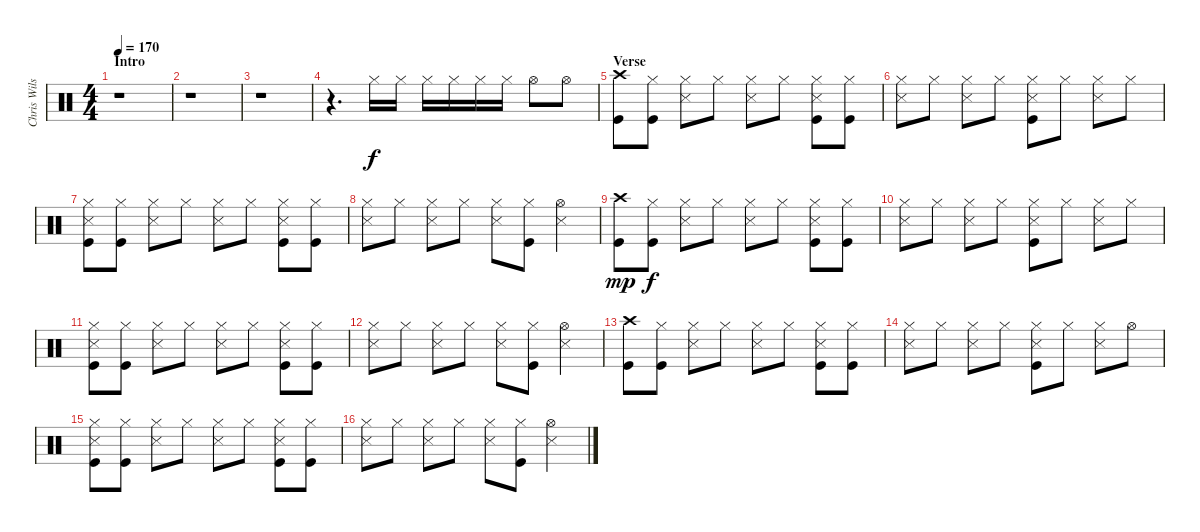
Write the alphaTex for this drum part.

\track ("Chris Wilson" "Chris Wils") {instrument percussion}
\staff {score}
\articulation defaults
\ts (4 4)
\section ("" "Intro")
\tempo 170
\clef neutral
\ks c
r.1{dy f} |
r.1 |
r.1 |
r.4{d} "Hi-Hat (closed)".16 "Hi-Hat (closed)".16 "Hi-Hat (closed)".16 "Hi-Hat (closed)".16 "Hi-Hat (closed)".16 "Hi-Hat (closed)".16 "Hi-Hat (open)".8 "Hi-Hat (open)".8 |
\section ("" "Verse")
("Crash high (hit)" "Kick (hit)").8 ("Hi-Hat (closed)" "Kick (hit)").8 ("Hi-Hat (closed)" "Snare (side stick) 3").8 "Hi-Hat (closed)".8 ("Hi-Hat (closed)" "Snare (side stick) 3").8 "Hi-Hat (closed)".8 ("Hi-Hat (closed)" "Snare (side stick) 3" "Kick (hit)").8 ("Hi-Hat (closed)" "Kick (hit)").8 |
("Hi-Hat (closed)" "Snare (side stick) 3").8 "Hi-Hat (closed)".8 ("Hi-Hat (closed)" "Snare (side stick) 3").8 "Hi-Hat (closed)".8 ("Hi-Hat (closed)" "Snare (side stick) 3" "Kick (hit)").8 "Hi-Hat (closed)".8 ("Hi-Hat (closed)" "Snare (side stick) 3").8 "Hi-Hat (closed)".8 |
("Hi-Hat (closed)" "Snare (side stick) 3" "Kick (hit)").8 ("Hi-Hat (closed)" "Kick (hit)").8 ("Hi-Hat (closed)" "Snare (side stick) 3").8 "Hi-Hat (closed)".8 ("Hi-Hat (closed)" "Snare (side stick) 3").8 "Hi-Hat (closed)".8 ("Hi-Hat (closed)" "Snare (side stick) 3" "Kick (hit)").8 ("Hi-Hat (closed)" "Kick (hit)").8 |
("Hi-Hat (closed)" "Snare (side stick) 3").8 "Hi-Hat (closed)".8 ("Hi-Hat (closed)" "Snare (side stick) 3").8 "Hi-Hat (closed)".8 ("Hi-Hat (closed)" "Snare (side stick) 3").8 ("Hi-Hat (closed)" "Kick (hit)").8 ("Hi-Hat (open)" "Snare (side stick) 3").4 |
("Crash high (hit)" "Kick (hit)").8{dy mp} ("Hi-Hat (closed)" "Kick (hit)").8{dy f} ("Hi-Hat (closed)" "Snare (side stick) 3").8 "Hi-Hat (closed)".8 ("Hi-Hat (closed)" "Snare (side stick) 3").8 "Hi-Hat (closed)".8 ("Hi-Hat (closed)" "Snare (side stick) 3" "Kick (hit)").8 ("Hi-Hat (closed)" "Kick (hit)").8 |
("Hi-Hat (closed)" "Snare (side stick) 3").8 "Hi-Hat (closed)".8 ("Hi-Hat (closed)" "Snare (side stick) 3").8 "Hi-Hat (closed)".8 ("Hi-Hat (closed)" "Snare (side stick) 3" "Kick (hit)").8 "Hi-Hat (closed)".8 ("Hi-Hat (closed)" "Snare (side stick) 3").8 "Hi-Hat (closed)".8 |
("Hi-Hat (closed)" "Snare (side stick) 3" "Kick (hit)").8 ("Hi-Hat (closed)" "Kick (hit)").8 ("Hi-Hat (closed)" "Snare (side stick) 3").8 "Hi-Hat (closed)".8 ("Hi-Hat (closed)" "Snare (side stick) 3").8 "Hi-Hat (closed)".8 ("Hi-Hat (closed)" "Snare (side stick) 3" "Kick (hit)").8 ("Hi-Hat (closed)" "Kick (hit)").8 |
("Hi-Hat (closed)" "Snare (side stick) 3").8 "Hi-Hat (closed)".8 ("Hi-Hat (closed)" "Snare (side stick) 3").8 "Hi-Hat (closed)".8 ("Hi-Hat (closed)" "Snare (side stick) 3").8 ("Hi-Hat (closed)" "Kick (hit)").8 ("Hi-Hat (open)" "Snare (side stick) 3").4 |
("Crash high (hit)" "Kick (hit)").8 ("Hi-Hat (closed)" "Kick (hit)").8 ("Hi-Hat (closed)" "Snare (side stick) 3").8 "Hi-Hat (closed)".8 ("Hi-Hat (closed)" "Snare (side stick) 3").8 "Hi-Hat (closed)".8 ("Hi-Hat (closed)" "Snare (side stick) 3" "Kick (hit)").8 ("Hi-Hat (closed)" "Kick (hit)").8 |
("Hi-Hat (closed)" "Snare (side stick) 3").8 "Hi-Hat (closed)".8 ("Hi-Hat (closed)" "Snare (side stick) 3").8 "Hi-Hat (closed)".8 ("Hi-Hat (closed)" "Snare (side stick) 3" "Kick (hit)").8 "Hi-Hat (closed)".8 ("Hi-Hat (closed)" "Snare (side stick) 3").8 "Hi-Hat (open)".8 |
("Hi-Hat (closed)" "Snare (side stick) 3" "Kick (hit)").8 ("Hi-Hat (closed)" "Kick (hit)").8 ("Hi-Hat (closed)" "Snare (side stick) 3").8 "Hi-Hat (closed)".8 ("Hi-Hat (closed)" "Snare (side stick) 3").8 "Hi-Hat (closed)".8 ("Hi-Hat (closed)" "Snare (side stick) 3" "Kick (hit)").8 ("Hi-Hat (closed)" "Kick (hit)").8 |
("Hi-Hat (closed)" "Snare (side stick) 3").8 "Hi-Hat (closed)".8 ("Hi-Hat (closed)" "Snare (side stick) 3").8 "Hi-Hat (closed)".8 ("Hi-Hat (closed)" "Snare (side stick) 3").8 ("Hi-Hat (closed)" "Kick (hit)").8 ("Hi-Hat (open)" "Snare (side stick) 3").4
